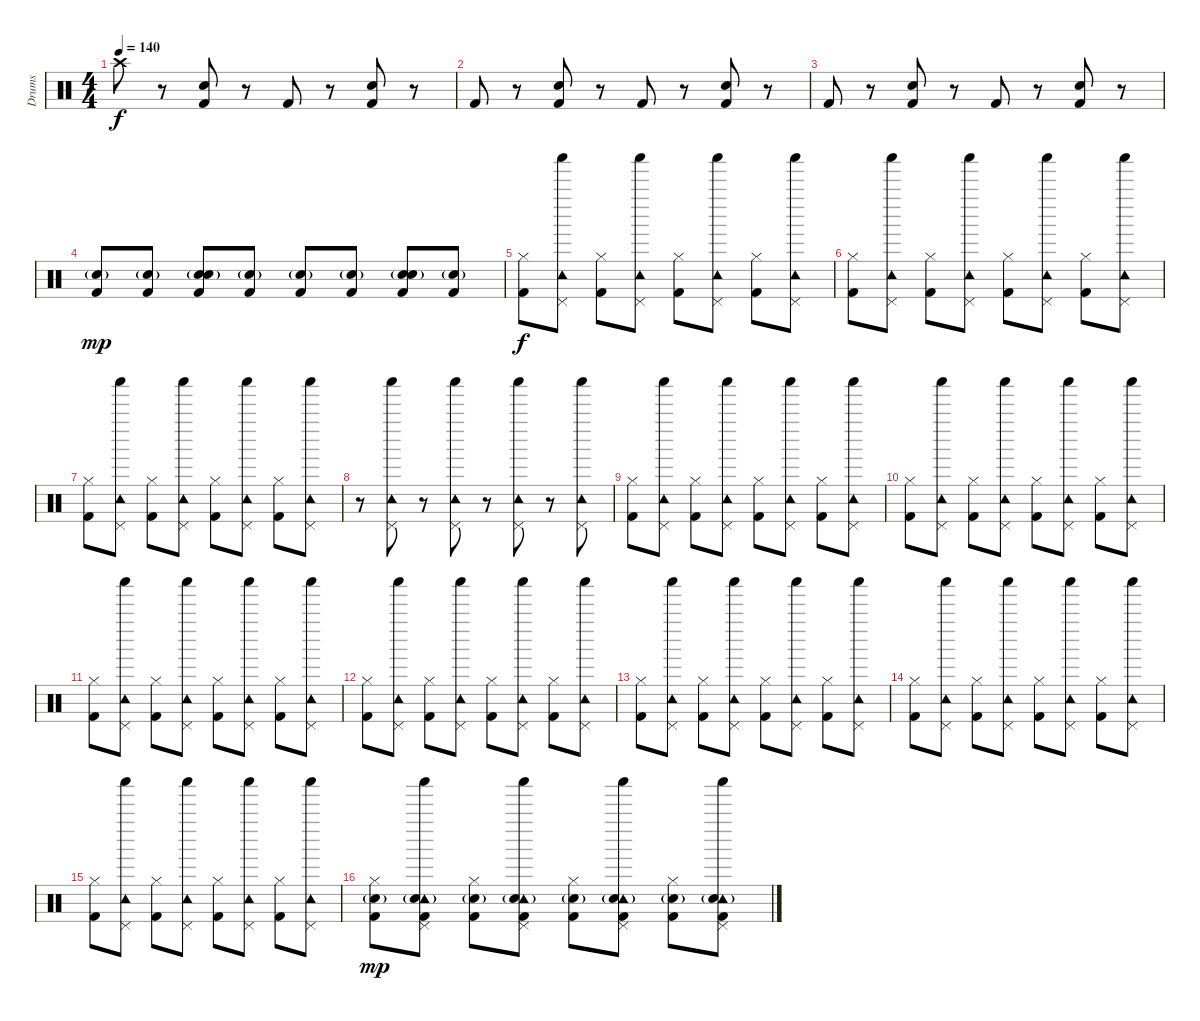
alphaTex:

\track ("Drums" "Drums") {instrument percussion}
\staff {score}
\articulation defaults
\ts (4 4)
\tempo 140
\clef neutral
\ks c "Crash high (hit)".8{dy f}
r.8 ("Kick (hit) 2" "Hand Clap (hit)").8 r.8 "Kick (hit) 2".8 r.8 ("Kick (hit) 2" "Hand Clap (hit)").8 r.8 |
"Kick (hit) 2".8 r.8 ("Kick (hit) 2" "Hand Clap (hit)").8 r.8 "Kick (hit) 2".8 r.8 ("Kick (hit) 2" "Hand Clap (hit)").8 r.8 |
"Kick (hit) 2".8 r.8 ("Kick (hit) 2" "Hand Clap (hit)").8 r.8 "Kick (hit) 2".8 r.8 ("Kick (hit) 2" "Hand Clap (hit)").8 r.8 |
("Kick (hit) 2" "Electric Snare (hit)"{g}).8{dy mp} ("Kick (hit) 2" "Electric Snare (hit)"{g}).8 ("Kick (hit) 2" "Hand Clap (hit)" "Electric Snare (hit)"{g}).8 ("Kick (hit) 2" "Electric Snare (hit)"{g}).8 ("Kick (hit) 2" "Electric Snare (hit)"{g}).8 ("Kick (hit) 2" "Electric Snare (hit)"{g}).8 ("Kick (hit) 2" "Hand Clap (hit)" "Electric Snare (hit)"{g}).8 ("Kick (hit) 2" "Electric Snare (hit)"{g}).8 |
("Kick (hit) 2" "Hi-Hat (closed)").8{dy f} ("Pedal Hi-Hat (hit)" "Tambourine (hit)" "Shaker (hit)").8 ("Kick (hit) 2" "Hi-Hat (closed)").8 ("Pedal Hi-Hat (hit)" "Tambourine (hit)" "Shaker (hit)").8 ("Kick (hit) 2" "Hi-Hat (closed)").8 ("Pedal Hi-Hat (hit)" "Tambourine (hit)" "Shaker (hit)").8 ("Kick (hit) 2" "Hi-Hat (closed)").8 ("Pedal Hi-Hat (hit)" "Tambourine (hit)" "Shaker (hit)").8 |
("Kick (hit) 2" "Hi-Hat (closed)").8 ("Pedal Hi-Hat (hit)" "Tambourine (hit)" "Shaker (hit)").8 ("Kick (hit) 2" "Hi-Hat (closed)").8 ("Pedal Hi-Hat (hit)" "Tambourine (hit)" "Shaker (hit)").8 ("Kick (hit) 2" "Hi-Hat (closed)").8 ("Pedal Hi-Hat (hit)" "Tambourine (hit)" "Shaker (hit)").8 ("Kick (hit) 2" "Hi-Hat (closed)").8 ("Pedal Hi-Hat (hit)" "Tambourine (hit)" "Shaker (hit)").8 |
("Kick (hit) 2" "Hi-Hat (closed)").8 ("Pedal Hi-Hat (hit)" "Tambourine (hit)" "Shaker (hit)").8 ("Kick (hit) 2" "Hi-Hat (closed)").8 ("Pedal Hi-Hat (hit)" "Tambourine (hit)" "Shaker (hit)").8 ("Kick (hit) 2" "Hi-Hat (closed)").8 ("Pedal Hi-Hat (hit)" "Tambourine (hit)" "Shaker (hit)").8 ("Kick (hit) 2" "Hi-Hat (closed)").8 ("Pedal Hi-Hat (hit)" "Tambourine (hit)" "Shaker (hit)").8 |
r.8 ("Pedal Hi-Hat (hit)" "Tambourine (hit)" "Shaker (hit)").8 r.8 ("Pedal Hi-Hat (hit)" "Tambourine (hit)" "Shaker (hit)").8 r.8 ("Pedal Hi-Hat (hit)" "Tambourine (hit)" "Shaker (hit)").8 r.8 ("Pedal Hi-Hat (hit)" "Tambourine (hit)" "Shaker (hit)").8 |
("Kick (hit) 2" "Hi-Hat (closed)").8 ("Pedal Hi-Hat (hit)" "Tambourine (hit)" "Shaker (hit)").8 ("Kick (hit) 2" "Hi-Hat (closed)").8 ("Pedal Hi-Hat (hit)" "Tambourine (hit)" "Shaker (hit)").8 ("Kick (hit) 2" "Hi-Hat (closed)").8 ("Pedal Hi-Hat (hit)" "Tambourine (hit)" "Shaker (hit)").8 ("Kick (hit) 2" "Hi-Hat (closed)").8 ("Pedal Hi-Hat (hit)" "Tambourine (hit)" "Shaker (hit)").8 |
("Kick (hit) 2" "Hi-Hat (closed)").8 ("Pedal Hi-Hat (hit)" "Tambourine (hit)" "Shaker (hit)").8 ("Kick (hit) 2" "Hi-Hat (closed)").8 ("Pedal Hi-Hat (hit)" "Tambourine (hit)" "Shaker (hit)").8 ("Kick (hit) 2" "Hi-Hat (closed)").8 ("Pedal Hi-Hat (hit)" "Tambourine (hit)" "Shaker (hit)").8 ("Kick (hit) 2" "Hi-Hat (closed)").8 ("Pedal Hi-Hat (hit)" "Tambourine (hit)" "Shaker (hit)").8 |
("Kick (hit) 2" "Hi-Hat (closed)").8 ("Pedal Hi-Hat (hit)" "Tambourine (hit)" "Shaker (hit)").8 ("Kick (hit) 2" "Hi-Hat (closed)").8 ("Pedal Hi-Hat (hit)" "Tambourine (hit)" "Shaker (hit)").8 ("Kick (hit) 2" "Hi-Hat (closed)").8 ("Pedal Hi-Hat (hit)" "Tambourine (hit)" "Shaker (hit)").8 ("Kick (hit) 2" "Hi-Hat (closed)").8 ("Pedal Hi-Hat (hit)" "Tambourine (hit)" "Shaker (hit)").8 |
("Kick (hit) 2" "Hi-Hat (closed)").8 ("Pedal Hi-Hat (hit)" "Tambourine (hit)" "Shaker (hit)").8 ("Kick (hit) 2" "Hi-Hat (closed)").8 ("Pedal Hi-Hat (hit)" "Tambourine (hit)" "Shaker (hit)").8 ("Kick (hit) 2" "Hi-Hat (closed)").8 ("Pedal Hi-Hat (hit)" "Tambourine (hit)" "Shaker (hit)").8 ("Kick (hit) 2" "Hi-Hat (closed)").8 ("Pedal Hi-Hat (hit)" "Tambourine (hit)" "Shaker (hit)").8 |
("Kick (hit) 2" "Hi-Hat (closed)").8 ("Pedal Hi-Hat (hit)" "Tambourine (hit)" "Shaker (hit)").8 ("Kick (hit) 2" "Hi-Hat (closed)").8 ("Pedal Hi-Hat (hit)" "Tambourine (hit)" "Shaker (hit)").8 ("Kick (hit) 2" "Hi-Hat (closed)").8 ("Pedal Hi-Hat (hit)" "Tambourine (hit)" "Shaker (hit)").8 ("Kick (hit) 2" "Hi-Hat (closed)").8 ("Pedal Hi-Hat (hit)" "Tambourine (hit)" "Shaker (hit)").8 |
("Kick (hit) 2" "Hi-Hat (closed)").8 ("Pedal Hi-Hat (hit)" "Tambourine (hit)" "Shaker (hit)").8 ("Kick (hit) 2" "Hi-Hat (closed)").8 ("Pedal Hi-Hat (hit)" "Tambourine (hit)" "Shaker (hit)").8 ("Kick (hit) 2" "Hi-Hat (closed)").8 ("Pedal Hi-Hat (hit)" "Tambourine (hit)" "Shaker (hit)").8 ("Kick (hit) 2" "Hi-Hat (closed)").8 ("Pedal Hi-Hat (hit)" "Tambourine (hit)" "Shaker (hit)").8 |
("Kick (hit) 2" "Hi-Hat (closed)").8 ("Pedal Hi-Hat (hit)" "Tambourine (hit)" "Shaker (hit)").8 ("Kick (hit) 2" "Hi-Hat (closed)").8 ("Pedal Hi-Hat (hit)" "Tambourine (hit)" "Shaker (hit)").8 ("Kick (hit) 2" "Hi-Hat (closed)").8 ("Pedal Hi-Hat (hit)" "Tambourine (hit)" "Shaker (hit)").8 ("Kick (hit) 2" "Hi-Hat (closed)").8 ("Pedal Hi-Hat (hit)" "Tambourine (hit)" "Shaker (hit)").8 |
("Hi-Hat (closed)" "Kick (hit) 2" "Electric Snare (hit)"{g}).8{dy mp} ("Pedal Hi-Hat (hit)" "Tambourine (hit)" "Shaker (hit)" "Kick (hit) 2" "Electric Snare (hit)"{g}).8 ("Hi-Hat (closed)" "Kick (hit) 2" "Electric Snare (hit)"{g}).8 ("Pedal Hi-Hat (hit)" "Tambourine (hit)" "Shaker (hit)" "Kick (hit) 2" "Electric Snare (hit)"{g}).8 ("Hi-Hat (closed)" "Kick (hit) 2" "Electric Snare (hit)"{g}).8 ("Pedal Hi-Hat (hit)" "Tambourine (hit)" "Shaker (hit)" "Kick (hit) 2" "Electric Snare (hit)"{g}).8 ("Hi-Hat (closed)" "Kick (hit) 2" "Electric Snare (hit)"{g}).8 ("Pedal Hi-Hat (hit)" "Tambourine (hit)" "Shaker (hit)" "Kick (hit) 2" "Electric Snare (hit)"{g}).8
